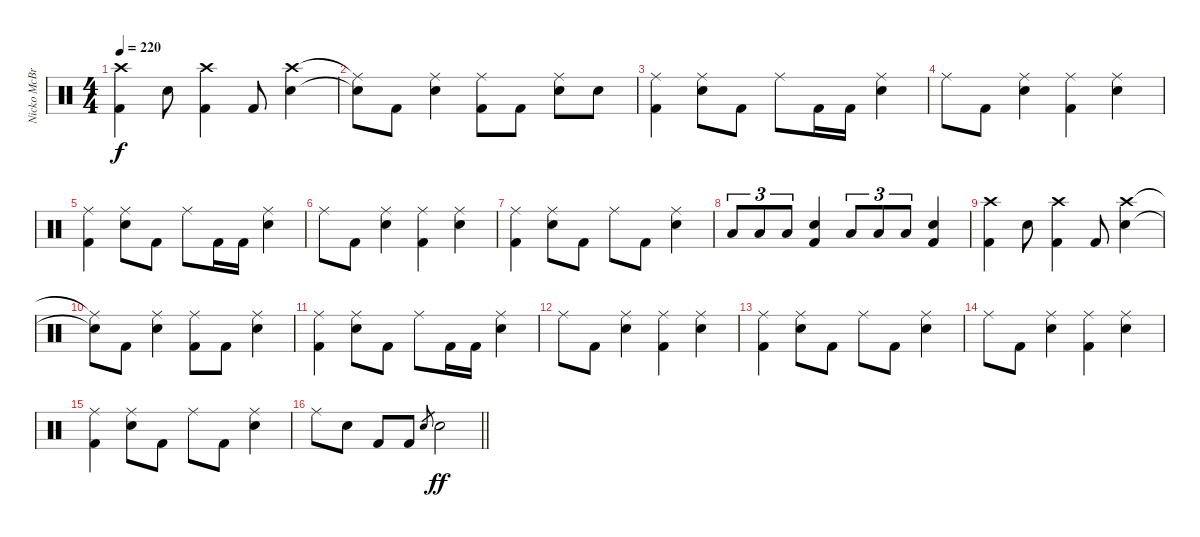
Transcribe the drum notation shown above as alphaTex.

\track ("Nicko McBrain" "Nicko McBr") {instrument percussion}
\staff {score}
\articulation defaults
\ts (4 4)
\tempo 220
\clef neutral
\ks c
("Crash high (hit)" "Kick (hit) 2").4{dy f} "Electric Snare (hit)".8 ("Crash high (hit)" "Kick (hit) 2").4 "Kick (hit) 2".8 ("Crash high (hit)" "Electric Snare (hit)").4 |
("Ride (middle)"{t} "Snare (hit)"{t}).8 "Kick (hit) 2".8 ("Ride (middle)" "Electric Snare (hit)").4 ("Ride (middle)" "Kick (hit) 2").8 "Kick (hit) 2".8 ("Ride (middle)" "Electric Snare (hit)").8 "Electric Snare (hit)".8 |
("Ride (middle)" "Kick (hit) 2").4 ("Ride (middle)" "Electric Snare (hit)").8 "Kick (hit) 2".8 "Ride (middle)".8 "Kick (hit) 2".16 "Kick (hit) 2".16 ("Ride (middle)" "Electric Snare (hit)").4 |
"Ride (middle)".8 "Kick (hit) 2".8 ("Ride (middle)" "Electric Snare (hit)").4 ("Ride (middle)" "Kick (hit) 2").4 ("Ride (middle)" "Electric Snare (hit)").4 |
("Ride (middle)" "Kick (hit) 2").4 ("Ride (middle)" "Electric Snare (hit)").8 "Kick (hit) 2".8 "Ride (middle)".8 "Kick (hit) 2".16 "Kick (hit) 2".16 ("Ride (middle)" "Electric Snare (hit)").4 |
"Ride (middle)".8 "Kick (hit) 2".8 ("Ride (middle)" "Electric Snare (hit)").4 ("Ride (middle)" "Kick (hit) 2").4 ("Ride (middle)" "Electric Snare (hit)").4 |
("Ride (middle)" "Kick (hit) 2").4 ("Ride (middle)" "Electric Snare (hit)").8 "Kick (hit) 2".8 "Ride (middle)".8 "Kick (hit) 2".8 ("Ride (middle)" "Electric Snare (hit)").4 |
"Low Tom (hit)".8{tu (3 2)} "Low Tom (hit)".8{tu (3 2)} "Low Tom (hit)".8{tu (3 2)} ("Electric Snare (hit)" "Kick (hit) 2").4 "Low Tom (hit)".8{tu (3 2)} "Low Tom (hit)".8{tu (3 2)} "Low Tom (hit)".8{tu (3 2)} ("Electric Snare (hit)" "Kick (hit) 2").4 |
("Crash high (hit)" "Kick (hit) 2").4 "Electric Snare (hit)".8 ("Crash high (hit)" "Kick (hit) 2").4 "Kick (hit) 2".8 ("Crash high (hit)" "Electric Snare (hit)").4 |
("Ride (middle)"{t} "Snare (hit)"{t}).8 "Kick (hit) 2".8 ("Ride (middle)" "Electric Snare (hit)").4 ("Ride (middle)" "Kick (hit) 2").8 "Kick (hit) 2".8 ("Ride (middle)" "Electric Snare (hit)").4 |
("Ride (middle)" "Kick (hit) 2").4 ("Ride (middle)" "Electric Snare (hit)").8 "Kick (hit) 2".8 "Ride (middle)".8 "Kick (hit) 2".16 "Kick (hit) 2".16 ("Ride (middle)" "Electric Snare (hit)").4 |
"Ride (middle)".8 "Kick (hit) 2".8 ("Ride (middle)" "Electric Snare (hit)").4 ("Ride (middle)" "Kick (hit) 2").4 ("Ride (middle)" "Electric Snare (hit)").4 |
("Ride (middle)" "Kick (hit) 2").4 ("Ride (middle)" "Electric Snare (hit)").8 "Kick (hit) 2".8 "Ride (middle)".8 "Kick (hit) 2".8 ("Ride (middle)" "Electric Snare (hit)").4 |
"Ride (middle)".8 "Kick (hit) 2".8 ("Ride (middle)" "Electric Snare (hit)").4 ("Ride (middle)" "Kick (hit) 2").4 ("Ride (middle)" "Electric Snare (hit)").4 |
("Ride (middle)" "Kick (hit) 2").4 ("Ride (middle)" "Electric Snare (hit)").8 "Kick (hit) 2".8 "Ride (middle)".8 "Kick (hit) 2".8 ("Ride (middle)" "Electric Snare (hit)").4 |
\barLineRight lightlight "Ride (middle)".8 "Electric Snare (hit)".8 "Kick (hit) 2".8 "Kick (hit) 2".8 "Electric Snare (hit)".8{gr} "Electric Snare (hit)".2{dy ff}
